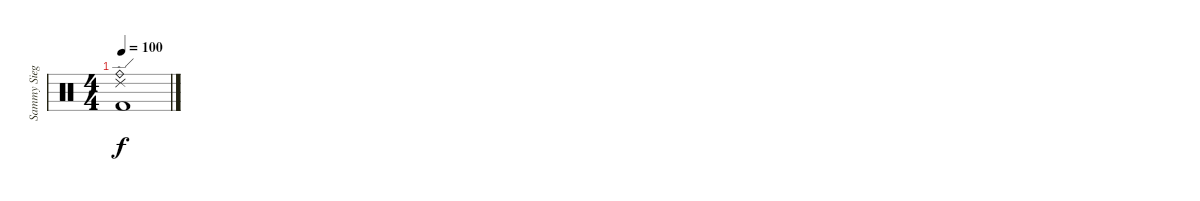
\track ("Sammy Siegler" "Sammy Sieg") {instrument percussion}
\staff {score}
\articulation defaults
\ts (4 4)
\tempo 100
\clef neutral
\ks c
("Ride (bell)" "Ride (edge) 2" "Kick (hit) 2").1{dy f}
